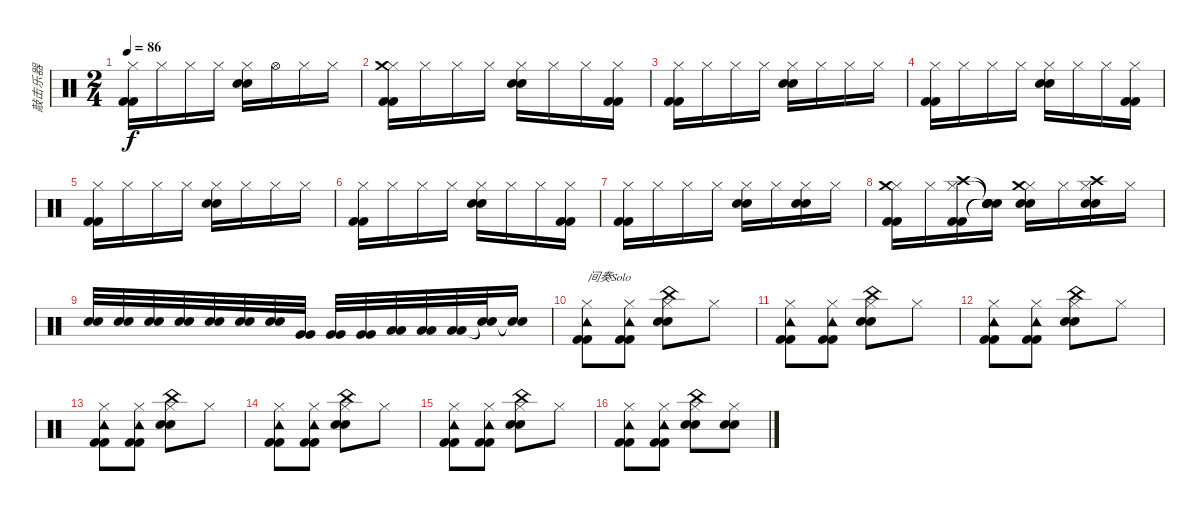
\track ("敲击乐器" "敲击乐器") {instrument percussion}
\staff {score}
\articulation defaults
\ts (2 4)
\tempo 86
\clef neutral
\ks c
("Hi-Hat (closed)" "Kick (hit) 2" "Kick (hit) 2").16{dy f} "Hi-Hat (closed)".16 "Hi-Hat (closed)".16 "Hi-Hat (closed)".16 ("Hi-Hat (closed)" "Electric Snare (hit)" "Electric Snare (hit)").16 "Hi-Hat (open)".16 "Hi-Hat (closed)".16 "Hi-Hat (closed)".16 |
("Hi-Hat (closed)" "Crash medium (hit)" "Kick (hit) 2" "Kick (hit) 2").16 "Hi-Hat (closed)".16 "Hi-Hat (closed)".16 "Hi-Hat (closed)".16 ("Hi-Hat (closed)" "Electric Snare (hit)" "Electric Snare (hit)").16 "Hi-Hat (closed)".16 "Hi-Hat (closed)".16 ("Hi-Hat (closed)" "Kick (hit) 2" "Kick (hit) 2").16 |
("Hi-Hat (closed)" "Kick (hit) 2" "Kick (hit) 2").16 "Hi-Hat (closed)".16 "Hi-Hat (closed)".16 "Hi-Hat (closed)".16 ("Hi-Hat (closed)" "Electric Snare (hit)" "Electric Snare (hit)").16 "Hi-Hat (closed)".16 "Hi-Hat (closed)".16 "Hi-Hat (closed)".16 |
("Hi-Hat (closed)" "Kick (hit) 2" "Kick (hit) 2").16 "Hi-Hat (closed)".16 "Hi-Hat (closed)".16 "Hi-Hat (closed)".16 ("Hi-Hat (closed)" "Electric Snare (hit)" "Electric Snare (hit)").16 "Hi-Hat (closed)".16 "Hi-Hat (closed)".16 ("Hi-Hat (closed)" "Kick (hit) 2" "Kick (hit) 2").16 |
("Hi-Hat (closed)" "Kick (hit) 2" "Kick (hit) 2").16 "Hi-Hat (closed)".16 "Hi-Hat (closed)".16 "Hi-Hat (closed)".16 ("Hi-Hat (closed)" "Electric Snare (hit)" "Electric Snare (hit)").16 "Hi-Hat (closed)".16 "Hi-Hat (closed)".16 "Hi-Hat (closed)".16 |
("Hi-Hat (closed)" "Kick (hit) 2" "Kick (hit) 2").16 "Hi-Hat (closed)".16 "Hi-Hat (closed)".16 "Hi-Hat (closed)".16 ("Hi-Hat (closed)" "Electric Snare (hit)" "Electric Snare (hit)").16 "Hi-Hat (closed)".16 "Hi-Hat (closed)".16 ("Hi-Hat (closed)" "Kick (hit) 2" "Kick (hit) 2").16 |
("Hi-Hat (closed)" "Kick (hit) 2" "Kick (hit) 2").16 "Hi-Hat (closed)".16 "Hi-Hat (closed)".16 "Hi-Hat (closed)".16 ("Hi-Hat (closed)" "Snare (hit) 2" "Electric Snare (hit)").16 "Hi-Hat (closed)".16 ("Hi-Hat (closed)" "Snare (hit) 2" "Electric Snare (hit)").16 "Hi-Hat (closed)".16 |
("Hi-Hat (closed)" "Crash medium (hit)" "Kick (hit) 2" "Kick (hit) 2").16 "Hi-Hat (closed)".16 ("Hi-Hat (closed)" "Crash high (hit)" "Kick (hit) 2" "Kick (hit) 2").16 ("Snare (hit)"{t} "Snare (hit)"{t} "Snare (hit)"{t} "Snare (hit)"{t}).16 ("Hi-Hat (closed)" "Crash medium (hit)" "Snare (hit) 2" "Snare (hit) 2").16 "Hi-Hat (closed)".16 ("Hi-Hat (closed)" "Crash high (hit)" "Snare (hit) 2" "Snare (hit) 2").16 "Hi-Hat (closed)".16 |
("Snare (hit) 2" "Snare (hit) 2").32 ("Snare (hit) 2" "Snare (hit) 2").32 ("Snare (hit) 2" "Snare (hit) 2").32 ("Snare (hit) 2" "Snare (hit) 2").32 ("Snare (hit) 2" "Snare (hit) 2").32 ("Snare (hit) 2" "Snare (hit) 2").32 ("Snare (hit) 2" "Snare (hit) 2").32 ("Very Low Tom (hit)" "Very Low Tom (hit)").32 ("Very Low Tom (hit)" "Very Low Tom (hit)").32 ("Very Low Tom (hit)" "Very Low Tom (hit)").32 ("Low Floor Tom (hit)" "Low Floor Tom (hit)").32 ("Low Floor Tom (hit)" "Low Floor Tom (hit)").32 ("Low Floor Tom (hit)" "Low Floor Tom (hit)").32 ("Snare (hit)"{t} "Snare (hit)"{t}).32 ("Snare (hit)"{t} "Snare (hit)"{t}).16 |
("Hi-Hat (closed)" "Tambourine (hit)" "Kick (hit) 2" "Kick (hit) 2").8{txt "间奏Solo"} ("Hi-Hat (closed)" "Tambourine (hit)" "Kick (hit) 2" "Kick (hit) 2").8 ("Hi-Hat (closed)" "China (hit)" "Snare (hit) 2" "Snare (hit) 2").8 "Hi-Hat (closed)".8 |
("Hi-Hat (closed)" "Tambourine (hit)" "Kick (hit) 2" "Kick (hit) 2").8 ("Hi-Hat (closed)" "Tambourine (hit)" "Kick (hit) 2" "Kick (hit) 2").8 ("Hi-Hat (closed)" "China (hit)" "Snare (hit) 2" "Snare (hit) 2").8 "Hi-Hat (closed)".8 |
("Hi-Hat (closed)" "Tambourine (hit)" "Kick (hit) 2" "Kick (hit) 2").8 ("Hi-Hat (closed)" "Tambourine (hit)" "Kick (hit) 2" "Kick (hit) 2").8 ("Hi-Hat (closed)" "China (hit)" "Snare (hit) 2" "Snare (hit) 2").8 "Hi-Hat (closed)".8 |
("Hi-Hat (closed)" "Tambourine (hit)" "Kick (hit) 2" "Kick (hit) 2").8 ("Hi-Hat (closed)" "Tambourine (hit)" "Kick (hit) 2" "Kick (hit) 2").8 ("Hi-Hat (closed)" "China (hit)" "Snare (hit) 2" "Snare (hit) 2").8 "Hi-Hat (closed)".8 |
("Hi-Hat (closed)" "Tambourine (hit)" "Kick (hit) 2" "Kick (hit) 2").8 ("Hi-Hat (closed)" "Tambourine (hit)" "Kick (hit) 2" "Kick (hit) 2").8 ("Hi-Hat (closed)" "China (hit)" "Snare (hit) 2" "Snare (hit) 2").8 "Hi-Hat (closed)".8 |
("Hi-Hat (closed)" "Tambourine (hit)" "Kick (hit) 2" "Kick (hit) 2").8 ("Hi-Hat (closed)" "Tambourine (hit)" "Kick (hit) 2" "Kick (hit) 2").8 ("Hi-Hat (closed)" "China (hit)" "Snare (hit) 2" "Snare (hit) 2").8 "Hi-Hat (closed)".8 |
("Hi-Hat (closed)" "Tambourine (hit)" "Kick (hit) 2" "Kick (hit) 2").8 ("Hi-Hat (closed)" "Tambourine (hit)" "Kick (hit) 2" "Kick (hit) 2").8 ("Hi-Hat (closed)" "China (hit)" "Snare (hit) 2" "Snare (hit) 2").8 ("Hi-Hat (closed)" "Snare (hit) 2" "Snare (hit) 2").8
